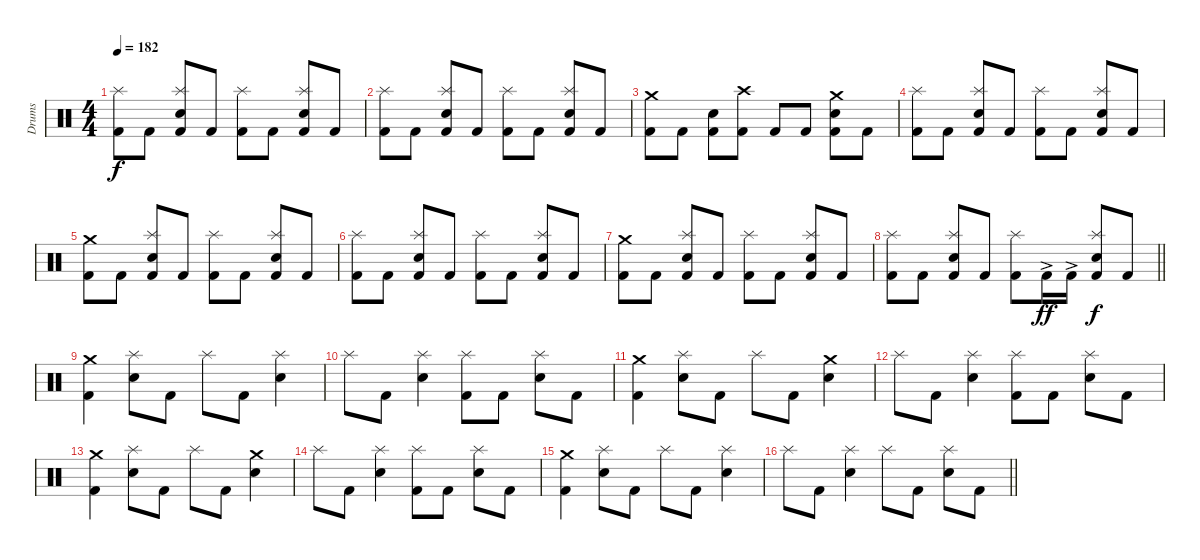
\track ("Drums" "Drums") {instrument percussion}
\staff {score}
\articulation defaults
\ts (4 4)
\section ("" "")
\tempo 182
\clef neutral
\ks c
("Kick (hit) 2" "Splash (hit)").8{dy f} "Kick (hit) 2".8 ("Kick (hit) 2" "Snare (hit) 2" "Splash (hit)").8 "Kick (hit) 2".8 ("Kick (hit) 2" "Splash (hit)").8 "Kick (hit) 2".8 ("Kick (hit) 2" "Snare (hit) 2" "Splash (hit)").8 "Kick (hit) 2".8 |
("Kick (hit) 2" "Splash (hit)").8 "Kick (hit) 2".8 ("Kick (hit) 2" "Snare (hit) 2" "Splash (hit)").8 "Kick (hit) 2".8 ("Kick (hit) 2" "Splash (hit)").8 "Kick (hit) 2".8 ("Kick (hit) 2" "Snare (hit) 2" "Splash (hit)").8 "Kick (hit) 2".8 |
("Kick (hit) 2" "Crash medium (hit)").8 "Kick (hit) 2".8 ("Kick (hit) 2" "Snare (hit) 2").8 ("Kick (hit) 2" "Crash high (hit)").8 "Kick (hit) 2".8 "Kick (hit) 2".8 ("Kick (hit) 2" "Snare (hit) 2" "Crash medium (hit)").8 "Kick (hit) 2".8 |
("Kick (hit) 2" "Splash (hit)").8 "Kick (hit) 2".8 ("Kick (hit) 2" "Snare (hit) 2" "Splash (hit)").8 "Kick (hit) 2".8 ("Kick (hit) 2" "Splash (hit)").8 "Kick (hit) 2".8 ("Kick (hit) 2" "Snare (hit) 2" "Splash (hit)").8 "Kick (hit) 2".8 |
("Kick (hit) 2" "Crash medium (hit)").8 "Kick (hit) 2".8 ("Kick (hit) 2" "Snare (hit) 2" "Splash (hit)").8 "Kick (hit) 2".8 ("Kick (hit) 2" "Splash (hit)").8 "Kick (hit) 2".8 ("Kick (hit) 2" "Snare (hit) 2" "Splash (hit)").8 "Kick (hit) 2".8 |
("Kick (hit) 2" "Splash (hit)").8 "Kick (hit) 2".8 ("Kick (hit) 2" "Snare (hit) 2" "Splash (hit)").8 "Kick (hit) 2".8 ("Kick (hit) 2" "Splash (hit)").8 "Kick (hit) 2".8 ("Kick (hit) 2" "Snare (hit) 2" "Splash (hit)").8 "Kick (hit) 2".8 |
("Kick (hit) 2" "Crash medium (hit)").8 "Kick (hit) 2".8 ("Kick (hit) 2" "Snare (hit) 2" "Splash (hit)").8 "Kick (hit) 2".8 ("Kick (hit) 2" "Splash (hit)").8 "Kick (hit) 2".8 ("Kick (hit) 2" "Snare (hit) 2" "Splash (hit)").8 "Kick (hit) 2".8 |
\barLineRight lightlight
("Kick (hit) 2" "Splash (hit)").8 "Kick (hit) 2".8 ("Kick (hit) 2" "Snare (hit) 2" "Splash (hit)").8 "Kick (hit) 2".8 ("Kick (hit) 2" "Splash (hit)").8 "Kick (hit) 2"{ac}.16{dy ff} "Kick (hit) 2"{ac}.16 ("Kick (hit) 2" "Snare (hit) 2" "Splash (hit)").8{dy f} "Kick (hit) 2".8 |
\section ("" "")
("Kick (hit) 2" "Crash medium (hit)").4 ("Snare (hit) 2" "Splash (hit)").8 "Kick (hit) 2".8 "Splash (hit)".8 "Kick (hit) 2".8 ("Snare (hit) 2" "Splash (hit)").4 |
"Splash (hit)".8 "Kick (hit) 2".8 ("Snare (hit) 2" "Splash (hit)").4 ("Kick (hit) 2" "Splash (hit)").8 "Kick (hit) 2".8 ("Snare (hit) 2" "Splash (hit)").8 "Kick (hit) 2".8 |
("Kick (hit) 2" "Crash medium (hit)").4 ("Snare (hit) 2" "Splash (hit)").8 "Kick (hit) 2".8 "Splash (hit)".8 "Kick (hit) 2".8 ("Snare (hit) 2" "Crash medium (hit)").4 |
"Splash (hit)".8 "Kick (hit) 2".8 ("Snare (hit) 2" "Splash (hit)").4 ("Kick (hit) 2" "Splash (hit)").8 "Kick (hit) 2".8 ("Snare (hit) 2" "Splash (hit)").8 "Kick (hit) 2".8 |
("Kick (hit) 2" "Crash medium (hit)").4 ("Snare (hit) 2" "Splash (hit)").8 "Kick (hit) 2".8 "Splash (hit)".8 "Kick (hit) 2".8 ("Snare (hit) 2" "Crash medium (hit)").4 |
"Splash (hit)".8 "Kick (hit) 2".8 ("Snare (hit) 2" "Splash (hit)").4 ("Kick (hit) 2" "Splash (hit)").8 "Kick (hit) 2".8 ("Snare (hit) 2" "Splash (hit)").8 "Kick (hit) 2".8 |
("Kick (hit) 2" "Crash medium (hit)").4 ("Snare (hit) 2" "Splash (hit)").8 "Kick (hit) 2".8 "Splash (hit)".8 "Kick (hit) 2".8 ("Snare (hit) 2" "Splash (hit)").4 |
\barLineRight lightlight "Splash (hit)".8 "Kick (hit) 2".8
("Snare (hit) 2" "Splash (hit)").4 "Splash (hit)".8 "Kick (hit) 2".8 ("Snare (hit) 2" "Splash (hit)").8 "Kick (hit) 2".8
